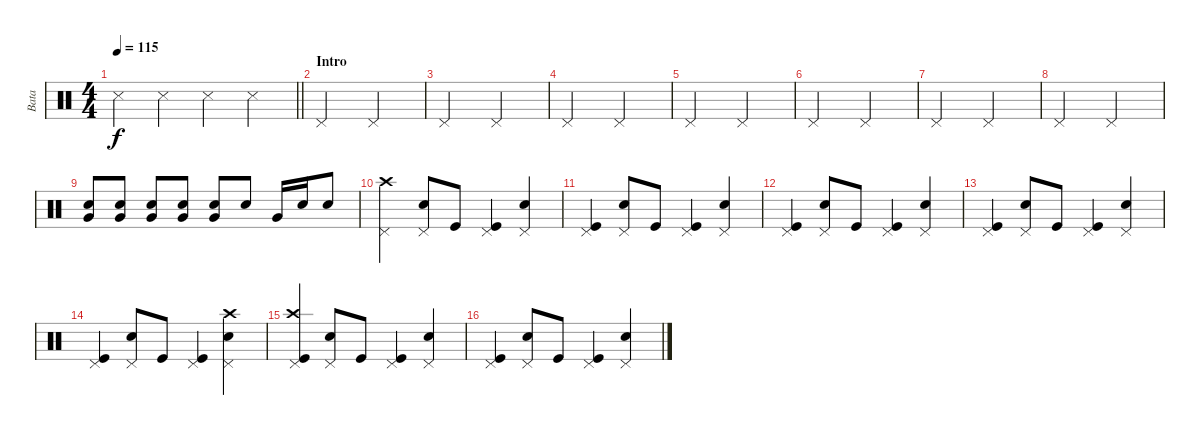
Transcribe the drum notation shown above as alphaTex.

\track ("Bata" "Bata") {instrument percussion}
\staff {score}
\articulation defaults
\ts (4 4)
\tempo 115
\clef neutral
\barLineRight lightlight
\ks c "Snare (side stick) 3".4{dy f} "Snare (side stick) 3".4 "Snare (side stick) 3".4 "Snare (side stick) 3".4
|
\section ("" "Intro")
"Pedal Hi-Hat (hit)".2 "Pedal Hi-Hat (hit)".2 |
"Pedal Hi-Hat (hit)".2 "Pedal Hi-Hat (hit)".2 |
"Pedal Hi-Hat (hit)".2 "Pedal Hi-Hat (hit)".2 |
"Pedal Hi-Hat (hit)".2 "Pedal Hi-Hat (hit)".2 |
"Pedal Hi-Hat (hit)".2 "Pedal Hi-Hat (hit)".2 |
"Pedal Hi-Hat (hit)".2 "Pedal Hi-Hat (hit)".2 |
"Pedal Hi-Hat (hit)".2 "Pedal Hi-Hat (hit)".2 |
("Snare (hit) 2" "Very Low Tom (hit)").8{volume 5} ("Snare (hit) 2" "Very Low Tom (hit)").8{volume 12} ("Snare (hit) 2" "Very Low Tom (hit)").8 ("Snare (hit) 2" "Very Low Tom (hit)").8 ("Snare (hit) 2" "Very Low Tom (hit)").8 "Snare (hit) 2".8 "Very Low Tom (hit)".16 "Snare (hit) 2".16 "Snare (hit) 2".8 |
("Crash high (hit)" "Pedal Hi-Hat (hit)").4 ("Snare (hit) 2" "Pedal Hi-Hat (hit)").8 "Kick (hit)".8 ("Kick (hit)" "Pedal Hi-Hat (hit)").4 ("Snare (hit) 2" "Pedal Hi-Hat (hit)").4 |
("Kick (hit)" "Pedal Hi-Hat (hit)").4 ("Snare (hit) 2" "Pedal Hi-Hat (hit)").8 "Kick (hit)".8 ("Kick (hit)" "Pedal Hi-Hat (hit)").4 ("Snare (hit) 2" "Pedal Hi-Hat (hit)").4 |
("Kick (hit)" "Pedal Hi-Hat (hit)").4 ("Snare (hit) 2" "Pedal Hi-Hat (hit)").8 "Kick (hit)".8 ("Kick (hit)" "Pedal Hi-Hat (hit)").4 ("Snare (hit) 2" "Pedal Hi-Hat (hit)").4 |
("Kick (hit)" "Pedal Hi-Hat (hit)").4 ("Snare (hit) 2" "Pedal Hi-Hat (hit)").8 "Kick (hit)".8 ("Kick (hit)" "Pedal Hi-Hat (hit)").4 ("Snare (hit) 2" "Pedal Hi-Hat (hit)").4 |
("Kick (hit)" "Pedal Hi-Hat (hit)").4 ("Snare (hit) 2" "Pedal Hi-Hat (hit)").8 "Kick (hit)".8 ("Kick (hit)" "Pedal Hi-Hat (hit)").4 ("Snare (hit) 2" "Crash high (hit)" "Pedal Hi-Hat (hit)").4 |
("Kick (hit)" "Crash high (hit)" "Pedal Hi-Hat (hit)").4 ("Snare (hit) 2" "Pedal Hi-Hat (hit)").8 "Kick (hit)".8 ("Kick (hit)" "Pedal Hi-Hat (hit)").4 ("Snare (hit) 2" "Pedal Hi-Hat (hit)").4 |
("Kick (hit)" "Pedal Hi-Hat (hit)").4 ("Snare (hit) 2" "Pedal Hi-Hat (hit)").8 "Kick (hit)".8 ("Kick (hit)" "Pedal Hi-Hat (hit)").4 ("Snare (hit) 2" "Pedal Hi-Hat (hit)").4
